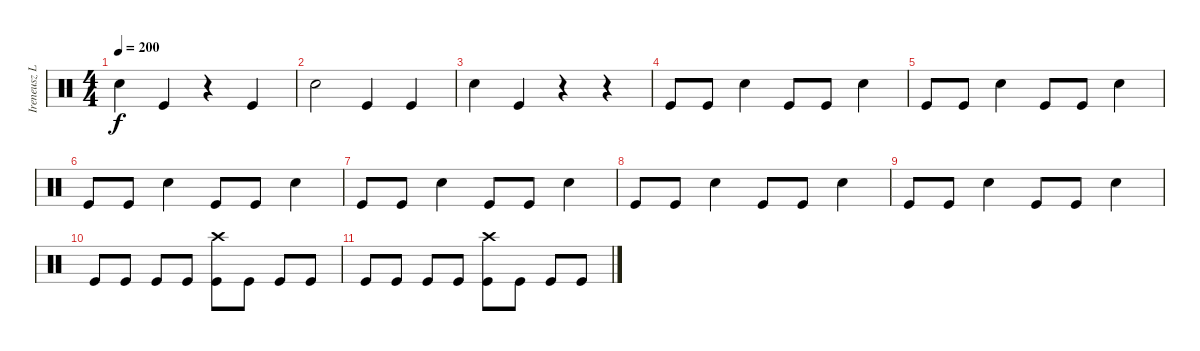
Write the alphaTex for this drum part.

\track ("Ireneusz Loth -Drums" "Ireneusz L") {instrument percussion}
\staff {score}
\articulation defaults
\ts (4 4)
\tempo 200
\clef neutral
\ks c "Snare (hit) 2".4{dy f} "Kick (hit)".4
r.4 "Kick (hit)".4 |
"Snare (hit) 2".2 "Kick (hit)".4 "Kick (hit)".4 |
"Snare (hit) 2".4 "Kick (hit)".4 r.4 r.4 |
"Kick (hit)".8 "Kick (hit)".8 "Snare (hit) 2".4 "Kick (hit)".8 "Kick (hit)".8 "Snare (hit) 2".4 |
"Kick (hit)".8 "Kick (hit)".8 "Snare (hit) 2".4 "Kick (hit)".8 "Kick (hit)".8 "Snare (hit) 2".4 |
"Kick (hit)".8 "Kick (hit)".8 "Snare (hit) 2".4 "Kick (hit)".8 "Kick (hit)".8 "Snare (hit) 2".4 |
"Kick (hit)".8 "Kick (hit)".8 "Snare (hit) 2".4 "Kick (hit)".8 "Kick (hit)".8 "Snare (hit) 2".4 |
"Kick (hit)".8 "Kick (hit)".8 "Snare (hit) 2".4 "Kick (hit)".8 "Kick (hit)".8 "Snare (hit) 2".4 |
"Kick (hit)".8 "Kick (hit)".8 "Snare (hit) 2".4 "Kick (hit)".8 "Kick (hit)".8 "Snare (hit) 2".4 |
"Kick (hit)".8 "Kick (hit)".8 "Kick (hit)".8 "Kick (hit)".8 ("Kick (hit)" "Crash high (hit)").8 "Kick (hit)".8 "Kick (hit)".8 "Kick (hit)".8 |
"Kick (hit)".8 "Kick (hit)".8 "Kick (hit)".8 "Kick (hit)".8 ("Kick (hit)" "Crash high (hit)").8 "Kick (hit)".8 "Kick (hit)".8 "Kick (hit)".8
